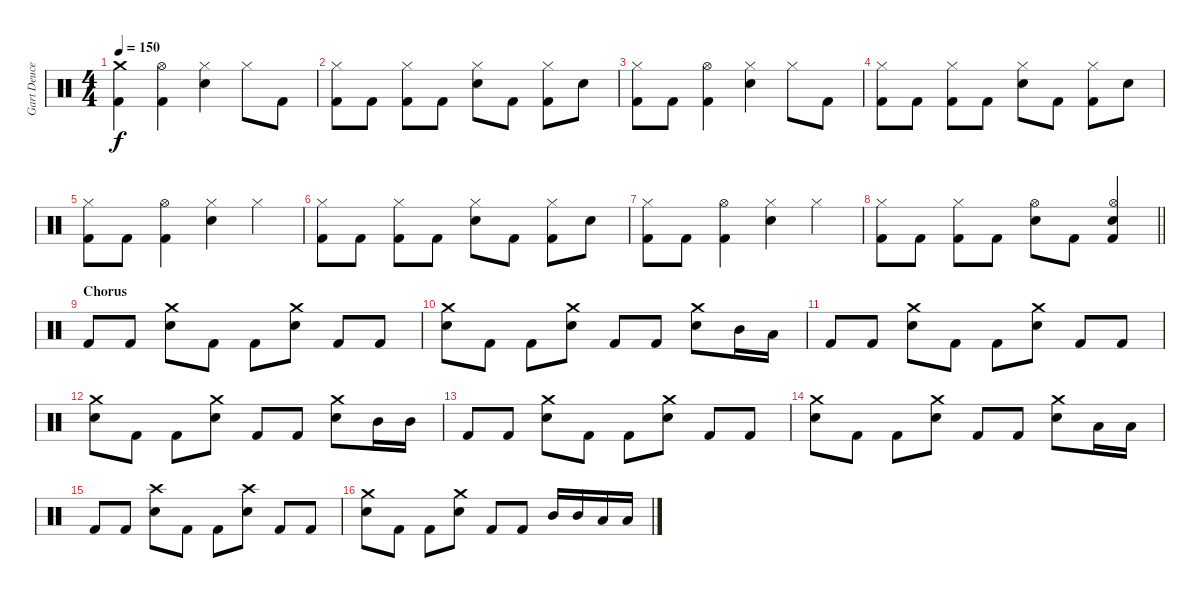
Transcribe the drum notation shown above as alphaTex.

\track ("Gart Deuce" "Gart Deuce") {instrument percussion}
\staff {score}
\articulation defaults
\ts (4 4)
\tempo 150
\clef neutral
\ks c
("Crash medium (hit)" "Kick (hit) 2").4{dy f} ("Hi-Hat (open)" "Kick (hit) 2").4 ("Hi-Hat (closed)" "Snare (hit) 2").4 "Hi-Hat (closed)".8 "Kick (hit) 2".8 |
("Hi-Hat (closed)" "Kick (hit) 2").8 "Kick (hit) 2".8 ("Hi-Hat (closed)" "Kick (hit) 2").8 "Kick (hit) 2".8 ("Hi-Hat (closed)" "Snare (hit) 2").8 "Kick (hit) 2".8 ("Hi-Hat (closed)" "Kick (hit) 2").8 "Snare (hit) 2".8 |
("Hi-Hat (closed)" "Kick (hit) 2").8 "Kick (hit) 2".8 ("Hi-Hat (open)" "Kick (hit) 2").4 ("Hi-Hat (closed)" "Snare (hit) 2").4 "Hi-Hat (closed)".8 "Kick (hit) 2".8 |
("Hi-Hat (closed)" "Kick (hit) 2").8 "Kick (hit) 2".8 ("Hi-Hat (closed)" "Kick (hit) 2").8 "Kick (hit) 2".8 ("Hi-Hat (closed)" "Snare (hit) 2").8 "Kick (hit) 2".8 ("Hi-Hat (closed)" "Kick (hit) 2").8 "Snare (hit) 2".8 |
("Hi-Hat (closed)" "Kick (hit) 2").8 "Kick (hit) 2".8 ("Hi-Hat (open)" "Kick (hit) 2").4 ("Hi-Hat (closed)" "Snare (hit) 2").4 "Hi-Hat (closed)".4 |
("Hi-Hat (closed)" "Kick (hit) 2").8 "Kick (hit) 2".8 ("Hi-Hat (closed)" "Kick (hit) 2").8 "Kick (hit) 2".8 ("Hi-Hat (closed)" "Snare (hit) 2").8 "Kick (hit) 2".8 ("Hi-Hat (closed)" "Kick (hit) 2").8 "Snare (hit) 2".8 |
("Hi-Hat (closed)" "Kick (hit) 2").8 "Kick (hit) 2".8 ("Hi-Hat (open)" "Kick (hit) 2").4 ("Hi-Hat (closed)" "Snare (hit) 2").4 "Hi-Hat (closed)".4 |
\barLineRight lightlight
("Hi-Hat (closed)" "Kick (hit) 2").8 "Kick (hit) 2".8 ("Hi-Hat (closed)" "Kick (hit) 2").8 "Kick (hit) 2".8 ("Hi-Hat (open)" "Snare (hit) 2").8 "Kick (hit) 2".8 ("Hi-Hat (open)" "Snare (hit) 2" "Kick (hit) 2").4 |
\section ("" "Chorus")
"Kick (hit) 2".8 "Kick (hit) 2".8 ("Crash medium (hit)" "Snare (hit) 2").8 "Kick (hit) 2".8 "Kick (hit) 2".8 ("Crash medium (hit)" "Snare (hit) 2").8 "Kick (hit) 2".8 "Kick (hit) 2".8 |
("Crash medium (hit)" "Snare (hit) 2").8 "Kick (hit) 2".8 "Kick (hit) 2".8 ("Crash medium (hit)" "Snare (hit) 2").8 "Kick (hit) 2".8 "Kick (hit) 2".8 ("Crash medium (hit)" "Snare (hit) 2").8 "Mid Tom (hit)".16 "Low Tom (hit)".16 |
"Kick (hit) 2".8 "Kick (hit) 2".8 ("Crash medium (hit)" "Snare (hit) 2").8 "Kick (hit) 2".8 "Kick (hit) 2".8 ("Crash medium (hit)" "Snare (hit) 2").8 "Kick (hit) 2".8 "Kick (hit) 2".8 |
("Crash medium (hit)" "Snare (hit) 2").8 "Kick (hit) 2".8 "Kick (hit) 2".8 ("Crash medium (hit)" "Snare (hit) 2").8 "Kick (hit) 2".8 "Kick (hit) 2".8 ("Crash medium (hit)" "Snare (hit) 2").8 "Mid Tom (hit)".16 "Mid Tom (hit)".16 |
"Kick (hit) 2".8 "Kick (hit) 2".8 ("Crash medium (hit)" "Snare (hit) 2").8 "Kick (hit) 2".8 "Kick (hit) 2".8 ("Crash medium (hit)" "Snare (hit) 2").8 "Kick (hit) 2".8 "Kick (hit) 2".8 |
("Crash medium (hit)" "Snare (hit) 2").8 "Kick (hit) 2".8 "Kick (hit) 2".8 ("Crash medium (hit)" "Snare (hit) 2").8 "Kick (hit) 2".8 "Kick (hit) 2".8 ("Crash medium (hit)" "Snare (hit) 2").8 "Low Tom (hit)".16 "Low Tom (hit)".16 |
"Kick (hit) 2".8 "Kick (hit) 2".8 ("Crash high (hit)" "Snare (hit) 2").8 "Kick (hit) 2".8 "Kick (hit) 2".8 ("Crash high (hit)" "Snare (hit) 2").8 "Kick (hit) 2".8 "Kick (hit) 2".8 |
("Crash medium (hit)" "Snare (hit) 2").8 "Kick (hit) 2".8 "Kick (hit) 2".8 ("Crash medium (hit)" "Snare (hit) 2").8 "Kick (hit) 2".8 "Kick (hit) 2".8 "Mid Tom (hit)".16 "Mid Tom (hit)".16 "Low Tom (hit)".16 "Low Tom (hit)".16
